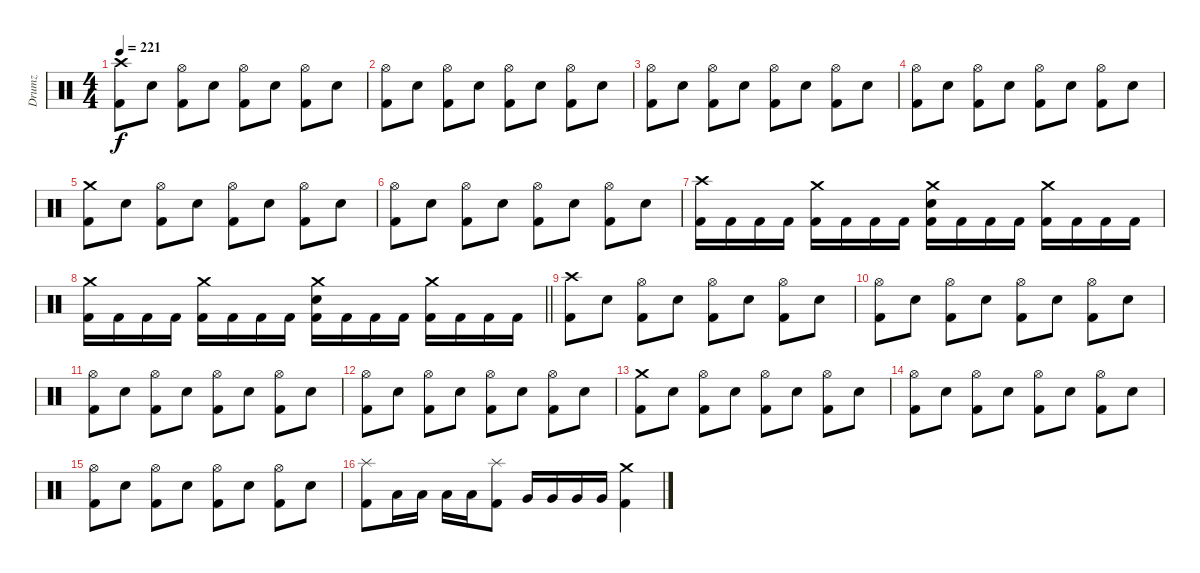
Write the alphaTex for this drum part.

\track ("Drumz" "Drumz") {instrument percussion}
\staff {score}
\articulation defaults
\ts (4 4)
\tempo 221
\clef neutral
\ks c
("Crash high (hit)" "Kick (hit) 2").8{dy f} "Electric Snare (hit)".8 ("Hi-Hat (open)" "Kick (hit) 2").8 "Electric Snare (hit)".8 ("Hi-Hat (open)" "Kick (hit) 2").8 "Electric Snare (hit)".8 ("Hi-Hat (open)" "Kick (hit) 2").8 "Electric Snare (hit)".8 |
("Hi-Hat (open)" "Kick (hit) 2").8 "Electric Snare (hit)".8 ("Hi-Hat (open)" "Kick (hit) 2").8 "Electric Snare (hit)".8 ("Hi-Hat (open)" "Kick (hit) 2").8 "Electric Snare (hit)".8 ("Hi-Hat (open)" "Kick (hit) 2").8 "Electric Snare (hit)".8 |
("Hi-Hat (open)" "Kick (hit) 2").8 "Electric Snare (hit)".8 ("Hi-Hat (open)" "Kick (hit) 2").8 "Electric Snare (hit)".8 ("Hi-Hat (open)" "Kick (hit) 2").8 "Electric Snare (hit)".8 ("Hi-Hat (open)" "Kick (hit) 2").8 "Electric Snare (hit)".8 |
("Hi-Hat (open)" "Kick (hit) 2").8 "Electric Snare (hit)".8 ("Hi-Hat (open)" "Kick (hit) 2").8 "Electric Snare (hit)".8 ("Hi-Hat (open)" "Kick (hit) 2").8 "Electric Snare (hit)".8 ("Hi-Hat (open)" "Kick (hit) 2").8 "Electric Snare (hit)".8 |
("Crash medium (hit)" "Kick (hit) 2").8 "Electric Snare (hit)".8 ("Hi-Hat (open)" "Kick (hit) 2").8 "Electric Snare (hit)".8 ("Hi-Hat (open)" "Kick (hit) 2").8 "Electric Snare (hit)".8 ("Hi-Hat (open)" "Kick (hit) 2").8 "Electric Snare (hit)".8 |
("Hi-Hat (open)" "Kick (hit) 2").8 "Electric Snare (hit)".8 ("Hi-Hat (open)" "Kick (hit) 2").8 "Electric Snare (hit)".8 ("Hi-Hat (open)" "Kick (hit) 2").8 "Electric Snare (hit)".8 ("Hi-Hat (open)" "Kick (hit) 2").8 "Electric Snare (hit)".8 |
("Crash high (hit)" "Kick (hit) 2").16 "Kick (hit) 2".16 "Kick (hit) 2".16 "Kick (hit) 2".16 ("Crash medium (hit)" "Kick (hit) 2").16 "Kick (hit) 2".16 "Kick (hit) 2".16 "Kick (hit) 2".16 ("Crash medium (hit)" "Electric Snare (hit)" "Kick (hit) 2").16 "Kick (hit) 2".16 "Kick (hit) 2".16 "Kick (hit) 2".16 ("Crash medium (hit)" "Kick (hit) 2").16 "Kick (hit) 2".16 "Kick (hit) 2".16 "Kick (hit) 2".16 |
\barLineRight lightlight
("Crash medium (hit)" "Kick (hit) 2").16 "Kick (hit) 2".16 "Kick (hit) 2".16 "Kick (hit) 2".16 ("Crash medium (hit)" "Kick (hit) 2").16 "Kick (hit) 2".16 "Kick (hit) 2".16 "Kick (hit) 2".16 ("Crash medium (hit)" "Electric Snare (hit)" "Kick (hit) 2").16 "Kick (hit) 2".16 "Kick (hit) 2".16 "Kick (hit) 2".16 ("Crash medium (hit)" "Kick (hit) 2").16 "Kick (hit) 2".16 "Kick (hit) 2".16 "Kick (hit) 2".16 |
\section ("" "")
("Crash high (hit)" "Kick (hit) 2").8 "Electric Snare (hit)".8 ("Hi-Hat (open)" "Kick (hit) 2").8 "Electric Snare (hit)".8 ("Hi-Hat (open)" "Kick (hit) 2").8 "Electric Snare (hit)".8 ("Hi-Hat (open)" "Kick (hit) 2").8 "Electric Snare (hit)".8 |
("Hi-Hat (open)" "Kick (hit) 2").8 "Electric Snare (hit)".8 ("Hi-Hat (open)" "Kick (hit) 2").8 "Electric Snare (hit)".8 ("Hi-Hat (open)" "Kick (hit) 2").8 "Electric Snare (hit)".8 ("Hi-Hat (open)" "Kick (hit) 2").8 "Electric Snare (hit)".8 |
("Hi-Hat (open)" "Kick (hit) 2").8 "Electric Snare (hit)".8 ("Hi-Hat (open)" "Kick (hit) 2").8 "Electric Snare (hit)".8 ("Hi-Hat (open)" "Kick (hit) 2").8 "Electric Snare (hit)".8 ("Hi-Hat (open)" "Kick (hit) 2").8 "Electric Snare (hit)".8 |
("Hi-Hat (open)" "Kick (hit) 2").8 "Electric Snare (hit)".8 ("Hi-Hat (open)" "Kick (hit) 2").8 "Electric Snare (hit)".8 ("Hi-Hat (open)" "Kick (hit) 2").8 "Electric Snare (hit)".8 ("Hi-Hat (open)" "Kick (hit) 2").8 "Electric Snare (hit)".8 |
("Crash medium (hit)" "Kick (hit) 2").8 "Electric Snare (hit)".8 ("Hi-Hat (open)" "Kick (hit) 2").8 "Electric Snare (hit)".8 ("Hi-Hat (open)" "Kick (hit) 2").8 "Electric Snare (hit)".8 ("Hi-Hat (open)" "Kick (hit) 2").8 "Electric Snare (hit)".8 |
("Hi-Hat (open)" "Kick (hit) 2").8 "Electric Snare (hit)".8 ("Hi-Hat (open)" "Kick (hit) 2").8 "Electric Snare (hit)".8 ("Hi-Hat (open)" "Kick (hit) 2").8 "Electric Snare (hit)".8 ("Hi-Hat (open)" "Kick (hit) 2").8 "Electric Snare (hit)".8 |
("Hi-Hat (open)" "Kick (hit) 2").8 "Electric Snare (hit)".8 ("Hi-Hat (open)" "Kick (hit) 2").8 "Electric Snare (hit)".8 ("Hi-Hat (open)" "Kick (hit) 2").8 "Electric Snare (hit)".8 ("Hi-Hat (open)" "Kick (hit) 2").8 "Electric Snare (hit)".8 |
("Splash (hit)" "Kick (hit) 2").8 "Low Tom (hit)".16 "Low Tom (hit)".16 "Low Tom (hit)".16 "Low Tom (hit)".16 ("Splash (hit)" "Kick (hit) 2").8 "Very Low Tom (hit)".16 "Very Low Tom (hit)".16 "Very Low Tom (hit)".16 "Very Low Tom (hit)".16 ("Crash medium (hit)" "Kick (hit) 2").4
